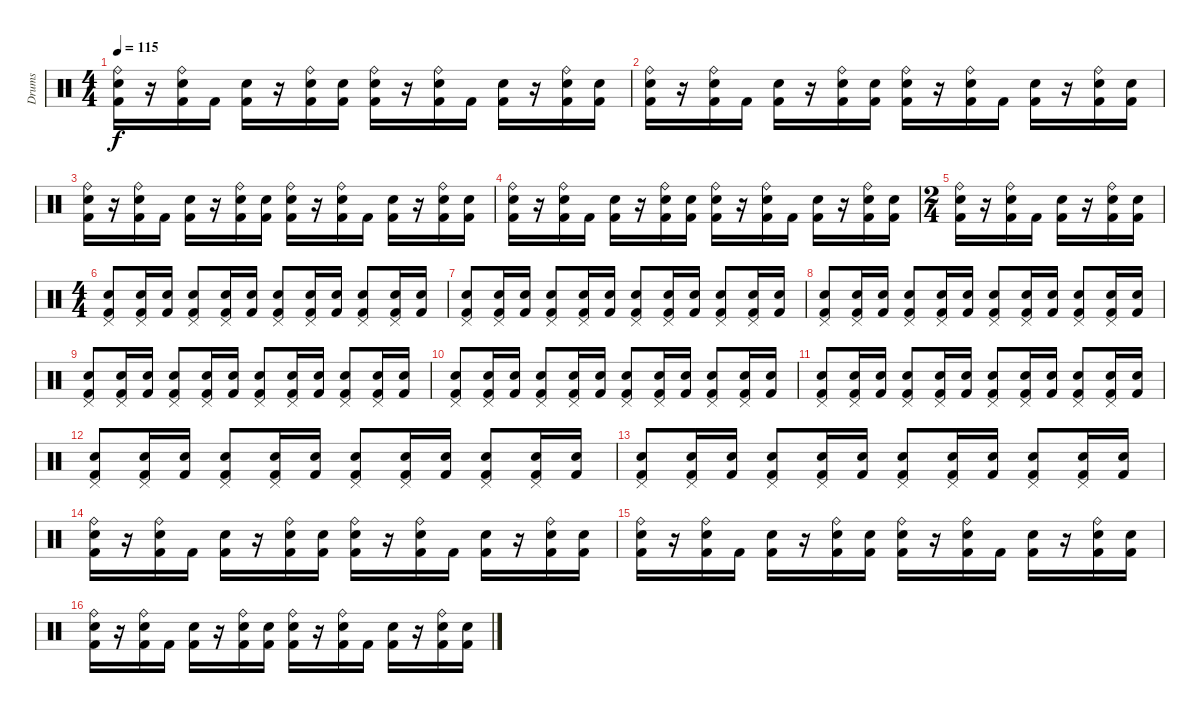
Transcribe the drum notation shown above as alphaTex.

\track ("Drums" "Drums") {instrument percussion}
\staff {score}
\articulation defaults
\ts (4 4)
\tempo 115
\clef neutral
\ks c
("Ride (bell)" "Snare (hit) 2" "Kick (hit) 2").16{dy f} r.16 ("Ride (bell)" "Snare (hit) 2" "Kick (hit) 2").16 "Kick (hit) 2".16 ("Electric Snare (hit)" "Kick (hit) 2").16 r.16 ("Ride (bell)" "Snare (hit) 2" "Kick (hit) 2").16 ("Snare (hit) 2" "Kick (hit) 2").16 ("Ride (bell)" "Snare (hit) 2" "Kick (hit) 2").16 r.16 ("Ride (bell)" "Snare (hit) 2" "Kick (hit) 2").16 "Kick (hit) 2".16 ("Electric Snare (hit)" "Kick (hit) 2").16 r.16 ("Ride (bell)" "Snare (hit) 2" "Kick (hit) 2").16 ("Snare (hit) 2" "Kick (hit) 2").16 |
("Ride (bell)" "Snare (hit) 2" "Kick (hit) 2").16 r.16 ("Ride (bell)" "Snare (hit) 2" "Kick (hit) 2").16 "Kick (hit) 2".16 ("Electric Snare (hit)" "Kick (hit) 2").16 r.16 ("Ride (bell)" "Snare (hit) 2" "Kick (hit) 2").16 ("Snare (hit) 2" "Kick (hit) 2").16 ("Ride (bell)" "Snare (hit) 2" "Kick (hit) 2").16 r.16 ("Ride (bell)" "Snare (hit) 2" "Kick (hit) 2").16 "Kick (hit) 2".16 ("Electric Snare (hit)" "Kick (hit) 2").16 r.16 ("Ride (bell)" "Snare (hit) 2" "Kick (hit) 2").16 ("Snare (hit) 2" "Kick (hit) 2").16 |
("Ride (bell)" "Snare (hit) 2" "Kick (hit) 2").16 r.16 ("Ride (bell)" "Snare (hit) 2" "Kick (hit) 2").16 "Kick (hit) 2".16 ("Electric Snare (hit)" "Kick (hit) 2").16 r.16 ("Ride (bell)" "Snare (hit) 2" "Kick (hit) 2").16 ("Snare (hit) 2" "Kick (hit) 2").16 ("Ride (bell)" "Snare (hit) 2" "Kick (hit) 2").16 r.16 ("Ride (bell)" "Snare (hit) 2" "Kick (hit) 2").16 "Kick (hit) 2".16 ("Electric Snare (hit)" "Kick (hit) 2").16 r.16 ("Ride (bell)" "Snare (hit) 2" "Kick (hit) 2").16 ("Snare (hit) 2" "Kick (hit) 2").16 |
("Ride (bell)" "Snare (hit) 2" "Kick (hit) 2").16 r.16 ("Ride (bell)" "Snare (hit) 2" "Kick (hit) 2").16 "Kick (hit) 2".16 ("Electric Snare (hit)" "Kick (hit) 2").16 r.16 ("Ride (bell)" "Snare (hit) 2" "Kick (hit) 2").16 ("Snare (hit) 2" "Kick (hit) 2").16 ("Ride (bell)" "Snare (hit) 2" "Kick (hit) 2").16 r.16 ("Ride (bell)" "Snare (hit) 2" "Kick (hit) 2").16 "Kick (hit) 2".16 ("Electric Snare (hit)" "Kick (hit) 2").16 r.16 ("Ride (bell)" "Snare (hit) 2" "Kick (hit) 2").16 ("Snare (hit) 2" "Kick (hit) 2").16 |
\ts (2 4)
("Ride (bell)" "Snare (hit) 2" "Kick (hit) 2").16 r.16 ("Ride (bell)" "Snare (hit) 2" "Kick (hit) 2").16 "Kick (hit) 2".16 ("Electric Snare (hit)" "Kick (hit) 2").16 r.16 ("Ride (bell)" "Snare (hit) 2" "Kick (hit) 2").16 ("Snare (hit) 2" "Kick (hit) 2").16 |
\ts (4 4)
("Pedal Hi-Hat (hit)" "Kick (hit) 2" "Snare (hit) 2").8 ("Pedal Hi-Hat (hit)" "Kick (hit) 2" "Snare (hit) 2").16 ("Kick (hit) 2" "Snare (hit) 2").16 ("Pedal Hi-Hat (hit)" "Electric Snare (hit)" "Kick (hit) 2").8 ("Pedal Hi-Hat (hit)" "Kick (hit) 2" "Snare (hit) 2").16 ("Kick (hit) 2" "Snare (hit) 2").16 ("Pedal Hi-Hat (hit)" "Kick (hit) 2" "Snare (hit) 2").8 ("Pedal Hi-Hat (hit)" "Kick (hit) 2" "Snare (hit) 2").16 ("Kick (hit) 2" "Snare (hit) 2").16 ("Pedal Hi-Hat (hit)" "Electric Snare (hit)" "Kick (hit) 2").8 ("Pedal Hi-Hat (hit)" "Kick (hit) 2" "Snare (hit) 2").16 ("Kick (hit) 2" "Snare (hit) 2").16 |
("Pedal Hi-Hat (hit)" "Kick (hit) 2" "Snare (hit) 2").8 ("Pedal Hi-Hat (hit)" "Kick (hit) 2" "Snare (hit) 2").16 ("Kick (hit) 2" "Snare (hit) 2").16 ("Pedal Hi-Hat (hit)" "Electric Snare (hit)" "Kick (hit) 2").8 ("Pedal Hi-Hat (hit)" "Kick (hit) 2" "Snare (hit) 2").16 ("Kick (hit) 2" "Snare (hit) 2").16 ("Pedal Hi-Hat (hit)" "Kick (hit) 2" "Snare (hit) 2").8 ("Pedal Hi-Hat (hit)" "Kick (hit) 2" "Snare (hit) 2").16 ("Kick (hit) 2" "Snare (hit) 2").16 ("Pedal Hi-Hat (hit)" "Electric Snare (hit)" "Kick (hit) 2").8 ("Pedal Hi-Hat (hit)" "Kick (hit) 2" "Snare (hit) 2").16 ("Kick (hit) 2" "Snare (hit) 2").16 |
("Pedal Hi-Hat (hit)" "Kick (hit) 2" "Snare (hit) 2").8 ("Pedal Hi-Hat (hit)" "Kick (hit) 2" "Snare (hit) 2").16 ("Kick (hit) 2" "Snare (hit) 2").16 ("Pedal Hi-Hat (hit)" "Electric Snare (hit)" "Kick (hit) 2").8 ("Pedal Hi-Hat (hit)" "Kick (hit) 2" "Snare (hit) 2").16 ("Kick (hit) 2" "Snare (hit) 2").16 ("Pedal Hi-Hat (hit)" "Kick (hit) 2" "Snare (hit) 2").8 ("Pedal Hi-Hat (hit)" "Kick (hit) 2" "Snare (hit) 2").16 ("Kick (hit) 2" "Snare (hit) 2").16 ("Pedal Hi-Hat (hit)" "Electric Snare (hit)" "Kick (hit) 2").8 ("Pedal Hi-Hat (hit)" "Kick (hit) 2" "Snare (hit) 2").16 ("Kick (hit) 2" "Snare (hit) 2").16 |
("Pedal Hi-Hat (hit)" "Kick (hit) 2" "Snare (hit) 2").8 ("Pedal Hi-Hat (hit)" "Kick (hit) 2" "Snare (hit) 2").16 ("Kick (hit) 2" "Snare (hit) 2").16 ("Pedal Hi-Hat (hit)" "Electric Snare (hit)" "Kick (hit) 2").8 ("Pedal Hi-Hat (hit)" "Kick (hit) 2" "Snare (hit) 2").16 ("Kick (hit) 2" "Snare (hit) 2").16 ("Pedal Hi-Hat (hit)" "Kick (hit) 2" "Snare (hit) 2").8 ("Pedal Hi-Hat (hit)" "Kick (hit) 2" "Snare (hit) 2").16 ("Kick (hit) 2" "Snare (hit) 2").16 ("Pedal Hi-Hat (hit)" "Electric Snare (hit)" "Kick (hit) 2").8 ("Pedal Hi-Hat (hit)" "Kick (hit) 2" "Snare (hit) 2").16 ("Kick (hit) 2" "Snare (hit) 2").16 |
("Pedal Hi-Hat (hit)" "Kick (hit) 2" "Snare (hit) 2").8 ("Pedal Hi-Hat (hit)" "Kick (hit) 2" "Snare (hit) 2").16 ("Kick (hit) 2" "Snare (hit) 2").16 ("Pedal Hi-Hat (hit)" "Electric Snare (hit)" "Kick (hit) 2").8 ("Pedal Hi-Hat (hit)" "Kick (hit) 2" "Snare (hit) 2").16 ("Kick (hit) 2" "Snare (hit) 2").16 ("Pedal Hi-Hat (hit)" "Kick (hit) 2" "Snare (hit) 2").8 ("Pedal Hi-Hat (hit)" "Kick (hit) 2" "Snare (hit) 2").16 ("Kick (hit) 2" "Snare (hit) 2").16 ("Pedal Hi-Hat (hit)" "Electric Snare (hit)" "Kick (hit) 2").8 ("Pedal Hi-Hat (hit)" "Kick (hit) 2" "Snare (hit) 2").16 ("Kick (hit) 2" "Snare (hit) 2").16 |
("Pedal Hi-Hat (hit)" "Kick (hit) 2" "Snare (hit) 2").8 ("Pedal Hi-Hat (hit)" "Kick (hit) 2" "Snare (hit) 2").16 ("Kick (hit) 2" "Snare (hit) 2").16 ("Pedal Hi-Hat (hit)" "Electric Snare (hit)" "Kick (hit) 2").8 ("Pedal Hi-Hat (hit)" "Kick (hit) 2" "Snare (hit) 2").16 ("Kick (hit) 2" "Snare (hit) 2").16 ("Pedal Hi-Hat (hit)" "Kick (hit) 2" "Snare (hit) 2").8 ("Pedal Hi-Hat (hit)" "Kick (hit) 2" "Snare (hit) 2").16 ("Kick (hit) 2" "Snare (hit) 2").16 ("Pedal Hi-Hat (hit)" "Electric Snare (hit)" "Kick (hit) 2").8 ("Pedal Hi-Hat (hit)" "Kick (hit) 2" "Snare (hit) 2").16 ("Kick (hit) 2" "Snare (hit) 2").16 |
("Pedal Hi-Hat (hit)" "Kick (hit) 2" "Snare (hit) 2").8 ("Pedal Hi-Hat (hit)" "Kick (hit) 2" "Snare (hit) 2").16 ("Kick (hit) 2" "Snare (hit) 2").16 ("Pedal Hi-Hat (hit)" "Electric Snare (hit)" "Kick (hit) 2").8 ("Pedal Hi-Hat (hit)" "Kick (hit) 2" "Snare (hit) 2").16 ("Kick (hit) 2" "Snare (hit) 2").16 ("Pedal Hi-Hat (hit)" "Kick (hit) 2" "Snare (hit) 2").8 ("Pedal Hi-Hat (hit)" "Kick (hit) 2" "Snare (hit) 2").16 ("Kick (hit) 2" "Snare (hit) 2").16 ("Pedal Hi-Hat (hit)" "Electric Snare (hit)" "Kick (hit) 2").8 ("Pedal Hi-Hat (hit)" "Kick (hit) 2" "Snare (hit) 2").16 ("Kick (hit) 2" "Snare (hit) 2").16 |
("Pedal Hi-Hat (hit)" "Kick (hit) 2" "Snare (hit) 2").8 ("Pedal Hi-Hat (hit)" "Kick (hit) 2" "Snare (hit) 2").16 ("Kick (hit) 2" "Snare (hit) 2").16 ("Pedal Hi-Hat (hit)" "Electric Snare (hit)" "Kick (hit) 2").8 ("Pedal Hi-Hat (hit)" "Kick (hit) 2" "Snare (hit) 2").16 ("Kick (hit) 2" "Snare (hit) 2").16 ("Pedal Hi-Hat (hit)" "Kick (hit) 2" "Snare (hit) 2").8 ("Pedal Hi-Hat (hit)" "Kick (hit) 2" "Snare (hit) 2").16 ("Kick (hit) 2" "Snare (hit) 2").16 ("Pedal Hi-Hat (hit)" "Electric Snare (hit)" "Kick (hit) 2").8 ("Pedal Hi-Hat (hit)" "Kick (hit) 2" "Snare (hit) 2").16 ("Kick (hit) 2" "Snare (hit) 2").16 |
("Ride (bell)" "Snare (hit) 2" "Kick (hit) 2").16 r.16 ("Ride (bell)" "Snare (hit) 2" "Kick (hit) 2").16 "Kick (hit) 2".16 ("Electric Snare (hit)" "Kick (hit) 2").16 r.16 ("Ride (bell)" "Snare (hit) 2" "Kick (hit) 2").16 ("Snare (hit) 2" "Kick (hit) 2").16 ("Ride (bell)" "Snare (hit) 2" "Kick (hit) 2").16 r.16 ("Ride (bell)" "Snare (hit) 2" "Kick (hit) 2").16 "Kick (hit) 2".16 ("Electric Snare (hit)" "Kick (hit) 2").16 r.16 ("Ride (bell)" "Snare (hit) 2" "Kick (hit) 2").16 ("Snare (hit) 2" "Kick (hit) 2").16 |
("Ride (bell)" "Snare (hit) 2" "Kick (hit) 2").16 r.16 ("Ride (bell)" "Snare (hit) 2" "Kick (hit) 2").16 "Kick (hit) 2".16 ("Electric Snare (hit)" "Kick (hit) 2").16 r.16 ("Ride (bell)" "Snare (hit) 2" "Kick (hit) 2").16 ("Snare (hit) 2" "Kick (hit) 2").16 ("Ride (bell)" "Snare (hit) 2" "Kick (hit) 2").16 r.16 ("Ride (bell)" "Snare (hit) 2" "Kick (hit) 2").16 "Kick (hit) 2".16 ("Electric Snare (hit)" "Kick (hit) 2").16 r.16 ("Ride (bell)" "Snare (hit) 2" "Kick (hit) 2").16 ("Snare (hit) 2" "Kick (hit) 2").16 |
("Ride (bell)" "Snare (hit) 2" "Kick (hit) 2").16 r.16 ("Ride (bell)" "Snare (hit) 2" "Kick (hit) 2").16 "Kick (hit) 2".16 ("Electric Snare (hit)" "Kick (hit) 2").16 r.16 ("Ride (bell)" "Snare (hit) 2" "Kick (hit) 2").16 ("Snare (hit) 2" "Kick (hit) 2").16 ("Ride (bell)" "Snare (hit) 2" "Kick (hit) 2").16 r.16 ("Ride (bell)" "Snare (hit) 2" "Kick (hit) 2").16 "Kick (hit) 2".16 ("Electric Snare (hit)" "Kick (hit) 2").16 r.16 ("Ride (bell)" "Snare (hit) 2" "Kick (hit) 2").16 ("Snare (hit) 2" "Kick (hit) 2").16
